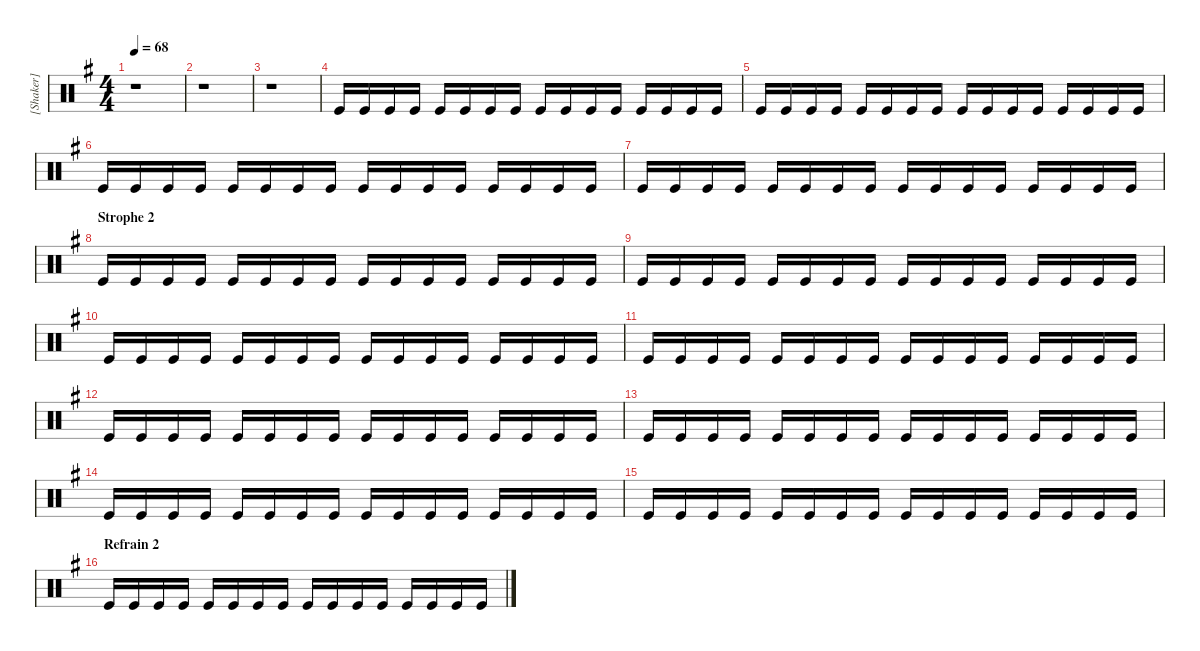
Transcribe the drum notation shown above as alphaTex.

\hideDynamics
\bracketExtendMode groupsimilarinstruments
\firstSystemTrackNameMode fullname
\otherSystemsTrackNameMode fullname
\otherSystemsTrackNameOrientation horizontal
\track ("[Shaker]" "Shaker") {instrument percussion}
\staff {score}
\articulation defaults
\ts (4 4)
\tempo 68
\clef neutral
\ks g
r.1{dy f} |
r.1 |
r.1 |
"Kick (hit)".16 "Kick (hit)".16 "Kick (hit)".16 "Kick (hit)".16 "Kick (hit)".16 "Kick (hit)".16 "Kick (hit)".16 "Kick (hit)".16 "Kick (hit)".16 "Kick (hit)".16 "Kick (hit)".16 "Kick (hit)".16 "Kick (hit)".16 "Kick (hit)".16 "Kick (hit)".16 "Kick (hit)".16 |
"Kick (hit)".16 "Kick (hit)".16 "Kick (hit)".16 "Kick (hit)".16 "Kick (hit)".16 "Kick (hit)".16 "Kick (hit)".16 "Kick (hit)".16 "Kick (hit)".16 "Kick (hit)".16 "Kick (hit)".16 "Kick (hit)".16 "Kick (hit)".16 "Kick (hit)".16 "Kick (hit)".16 "Kick (hit)".16 |
"Kick (hit)".16 "Kick (hit)".16 "Kick (hit)".16 "Kick (hit)".16 "Kick (hit)".16 "Kick (hit)".16 "Kick (hit)".16 "Kick (hit)".16 "Kick (hit)".16 "Kick (hit)".16 "Kick (hit)".16 "Kick (hit)".16 "Kick (hit)".16 "Kick (hit)".16 "Kick (hit)".16 "Kick (hit)".16 |
"Kick (hit)".16 "Kick (hit)".16 "Kick (hit)".16 "Kick (hit)".16 "Kick (hit)".16 "Kick (hit)".16 "Kick (hit)".16 "Kick (hit)".16 "Kick (hit)".16 "Kick (hit)".16 "Kick (hit)".16 "Kick (hit)".16 "Kick (hit)".16 "Kick (hit)".16 "Kick (hit)".16 "Kick (hit)".16 |
\section ("" "Strophe 2")
"Kick (hit)".16 "Kick (hit)".16 "Kick (hit)".16 "Kick (hit)".16 "Kick (hit)".16 "Kick (hit)".16 "Kick (hit)".16 "Kick (hit)".16 "Kick (hit)".16 "Kick (hit)".16 "Kick (hit)".16 "Kick (hit)".16 "Kick (hit)".16 "Kick (hit)".16 "Kick (hit)".16 "Kick (hit)".16 |
"Kick (hit)".16 "Kick (hit)".16 "Kick (hit)".16 "Kick (hit)".16 "Kick (hit)".16 "Kick (hit)".16 "Kick (hit)".16 "Kick (hit)".16 "Kick (hit)".16 "Kick (hit)".16 "Kick (hit)".16 "Kick (hit)".16 "Kick (hit)".16 "Kick (hit)".16 "Kick (hit)".16 "Kick (hit)".16 |
"Kick (hit)".16 "Kick (hit)".16 "Kick (hit)".16 "Kick (hit)".16 "Kick (hit)".16 "Kick (hit)".16 "Kick (hit)".16 "Kick (hit)".16 "Kick (hit)".16 "Kick (hit)".16 "Kick (hit)".16 "Kick (hit)".16 "Kick (hit)".16 "Kick (hit)".16 "Kick (hit)".16 "Kick (hit)".16 |
"Kick (hit)".16 "Kick (hit)".16 "Kick (hit)".16 "Kick (hit)".16 "Kick (hit)".16 "Kick (hit)".16 "Kick (hit)".16 "Kick (hit)".16 "Kick (hit)".16 "Kick (hit)".16 "Kick (hit)".16 "Kick (hit)".16 "Kick (hit)".16 "Kick (hit)".16 "Kick (hit)".16 "Kick (hit)".16 |
"Kick (hit)".16 "Kick (hit)".16 "Kick (hit)".16 "Kick (hit)".16 "Kick (hit)".16 "Kick (hit)".16 "Kick (hit)".16 "Kick (hit)".16 "Kick (hit)".16 "Kick (hit)".16 "Kick (hit)".16 "Kick (hit)".16 "Kick (hit)".16 "Kick (hit)".16 "Kick (hit)".16 "Kick (hit)".16 |
"Kick (hit)".16 "Kick (hit)".16 "Kick (hit)".16 "Kick (hit)".16 "Kick (hit)".16 "Kick (hit)".16 "Kick (hit)".16 "Kick (hit)".16 "Kick (hit)".16 "Kick (hit)".16 "Kick (hit)".16 "Kick (hit)".16 "Kick (hit)".16 "Kick (hit)".16 "Kick (hit)".16 "Kick (hit)".16 |
"Kick (hit)".16 "Kick (hit)".16 "Kick (hit)".16 "Kick (hit)".16 "Kick (hit)".16 "Kick (hit)".16 "Kick (hit)".16 "Kick (hit)".16 "Kick (hit)".16 "Kick (hit)".16 "Kick (hit)".16 "Kick (hit)".16 "Kick (hit)".16 "Kick (hit)".16 "Kick (hit)".16 "Kick (hit)".16 |
"Kick (hit)".16 "Kick (hit)".16 "Kick (hit)".16 "Kick (hit)".16 "Kick (hit)".16 "Kick (hit)".16 "Kick (hit)".16 "Kick (hit)".16 "Kick (hit)".16 "Kick (hit)".16 "Kick (hit)".16 "Kick (hit)".16 "Kick (hit)".16 "Kick (hit)".16 "Kick (hit)".16 "Kick (hit)".16 |
\section ("" "Refrain 2")
"Kick (hit)".16 "Kick (hit)".16 "Kick (hit)".16 "Kick (hit)".16 "Kick (hit)".16 "Kick (hit)".16 "Kick (hit)".16 "Kick (hit)".16 "Kick (hit)".16 "Kick (hit)".16 "Kick (hit)".16 "Kick (hit)".16 "Kick (hit)".16 "Kick (hit)".16 "Kick (hit)".16 "Kick (hit)".16
